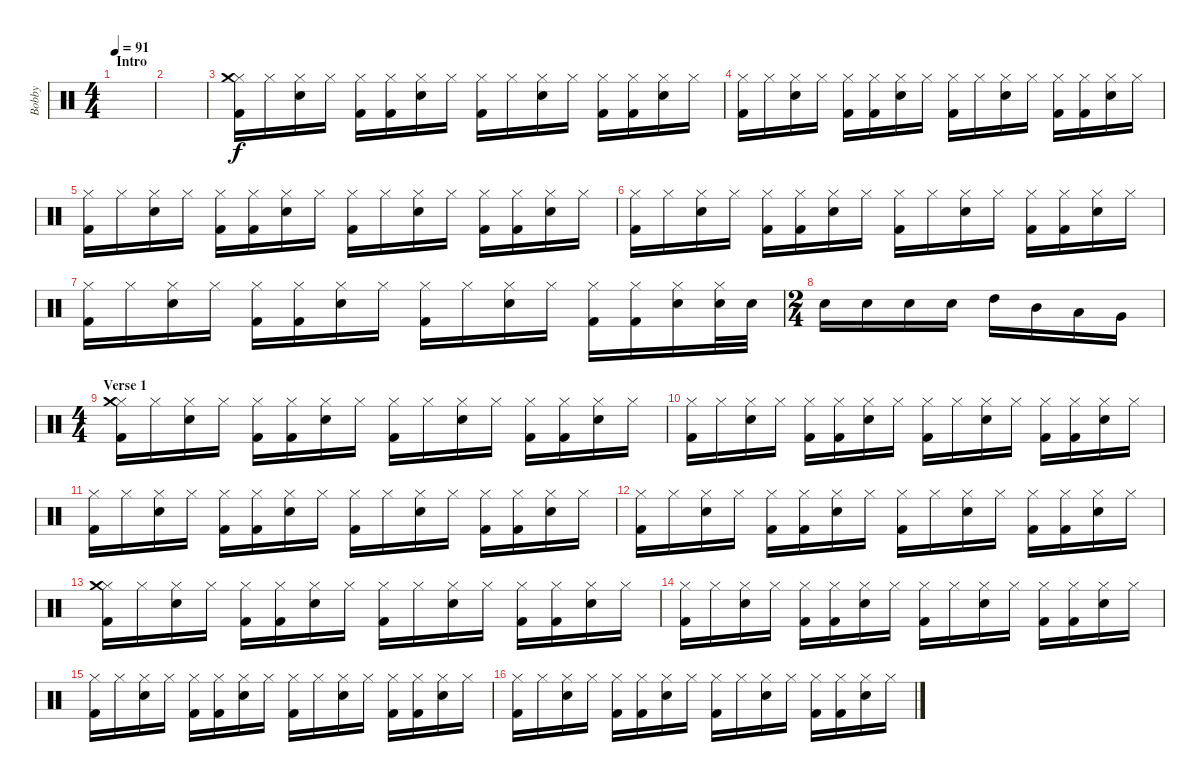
\track ("Bobby" "Bobby") {instrument percussion}
\staff {score}
\articulation defaults
\ts (4 4)
\section ("" "Intro")
\tempo 91
\clef neutral
\ks c
|
|
("Hi-Hat (closed)" "Crash medium (hit)" "Kick (hit) 2").16 "Hi-Hat (closed)".16 ("Hi-Hat (closed)" "Snare (hit) 2").16 "Hi-Hat (closed)".16 ("Hi-Hat (closed)" "Kick (hit) 2").16 ("Hi-Hat (closed)" "Kick (hit) 2").16 ("Hi-Hat (closed)" "Snare (hit) 2").16 "Hi-Hat (closed)".16 ("Hi-Hat (closed)" "Kick (hit) 2").16 "Hi-Hat (closed)".16 ("Hi-Hat (closed)" "Snare (hit) 2").16 "Hi-Hat (closed)".16 ("Hi-Hat (closed)" "Kick (hit) 2").16 ("Hi-Hat (closed)" "Kick (hit) 2").16 ("Hi-Hat (closed)" "Snare (hit) 2").16 "Hi-Hat (closed)".16 |
("Hi-Hat (closed)" "Kick (hit) 2").16 "Hi-Hat (closed)".16 ("Hi-Hat (closed)" "Snare (hit) 2").16 "Hi-Hat (closed)".16 ("Hi-Hat (closed)" "Kick (hit) 2").16 ("Hi-Hat (closed)" "Kick (hit) 2").16 ("Hi-Hat (closed)" "Snare (hit) 2").16 "Hi-Hat (closed)".16 ("Hi-Hat (closed)" "Kick (hit) 2").16 "Hi-Hat (closed)".16 ("Hi-Hat (closed)" "Snare (hit) 2").16 "Hi-Hat (closed)".16 ("Hi-Hat (closed)" "Kick (hit) 2").16 ("Hi-Hat (closed)" "Kick (hit) 2").16 ("Hi-Hat (closed)" "Snare (hit) 2").16 "Hi-Hat (closed)".16 |
("Hi-Hat (closed)" "Kick (hit) 2").16 "Hi-Hat (closed)".16 ("Hi-Hat (closed)" "Snare (hit) 2").16 "Hi-Hat (closed)".16 ("Hi-Hat (closed)" "Kick (hit) 2").16 ("Hi-Hat (closed)" "Kick (hit) 2").16 ("Hi-Hat (closed)" "Snare (hit) 2").16 "Hi-Hat (closed)".16 ("Hi-Hat (closed)" "Kick (hit) 2").16 "Hi-Hat (closed)".16 ("Hi-Hat (closed)" "Snare (hit) 2").16 "Hi-Hat (closed)".16 ("Hi-Hat (closed)" "Kick (hit) 2").16 ("Hi-Hat (closed)" "Kick (hit) 2").16 ("Hi-Hat (closed)" "Snare (hit) 2").16 "Hi-Hat (closed)".16 |
("Hi-Hat (closed)" "Kick (hit) 2").16 "Hi-Hat (closed)".16 ("Hi-Hat (closed)" "Snare (hit) 2").16 "Hi-Hat (closed)".16 ("Hi-Hat (closed)" "Kick (hit) 2").16 ("Hi-Hat (closed)" "Kick (hit) 2").16 ("Hi-Hat (closed)" "Snare (hit) 2").16 "Hi-Hat (closed)".16 ("Hi-Hat (closed)" "Kick (hit) 2").16 "Hi-Hat (closed)".16 ("Hi-Hat (closed)" "Snare (hit) 2").16 "Hi-Hat (closed)".16 ("Hi-Hat (closed)" "Kick (hit) 2").16 ("Hi-Hat (closed)" "Kick (hit) 2").16 ("Hi-Hat (closed)" "Snare (hit) 2").16 "Hi-Hat (closed)".16 |
("Hi-Hat (closed)" "Kick (hit) 2").16 "Hi-Hat (closed)".16 ("Hi-Hat (closed)" "Snare (hit) 2").16 "Hi-Hat (closed)".16 ("Hi-Hat (closed)" "Kick (hit) 2").16 ("Hi-Hat (closed)" "Kick (hit) 2").16 ("Hi-Hat (closed)" "Snare (hit) 2").16 "Hi-Hat (closed)".16 ("Hi-Hat (closed)" "Kick (hit) 2").16 "Hi-Hat (closed)".16 ("Hi-Hat (closed)" "Snare (hit) 2").16 "Hi-Hat (closed)".16 ("Hi-Hat (closed)" "Kick (hit) 2").16 ("Hi-Hat (closed)" "Kick (hit) 2").16 ("Hi-Hat (closed)" "Snare (hit) 2").16 ("Hi-Hat (closed)" "Snare (hit) 2").32 "Snare (hit) 2".32 |
\ts (2 4)
"Snare (hit) 2".16 "Snare (hit) 2".16 "Snare (hit) 2".16 "Snare (hit) 2".16 "High Tom (hit)".16 "Mid Tom (hit)".16 "Low Tom (hit)".16 "Very Low Tom (hit)".16 |
\ts (4 4)
\section ("" "Verse 1")
("Hi-Hat (closed)" "Crash medium (hit)" "Kick (hit) 2").16 "Hi-Hat (closed)".16 ("Hi-Hat (closed)" "Snare (hit) 2").16 "Hi-Hat (closed)".16 ("Hi-Hat (closed)" "Kick (hit) 2").16 ("Hi-Hat (closed)" "Kick (hit) 2").16 ("Hi-Hat (closed)" "Snare (hit) 2").16 "Hi-Hat (closed)".16 ("Hi-Hat (closed)" "Kick (hit) 2").16 "Hi-Hat (closed)".16 ("Hi-Hat (closed)" "Snare (hit) 2").16 "Hi-Hat (closed)".16 ("Hi-Hat (closed)" "Kick (hit) 2").16 ("Hi-Hat (closed)" "Kick (hit) 2").16 ("Hi-Hat (closed)" "Snare (hit) 2").16 "Hi-Hat (closed)".16 |
("Hi-Hat (closed)" "Kick (hit) 2").16 "Hi-Hat (closed)".16 ("Hi-Hat (closed)" "Snare (hit) 2").16 "Hi-Hat (closed)".16 ("Hi-Hat (closed)" "Kick (hit) 2").16 ("Hi-Hat (closed)" "Kick (hit) 2").16 ("Hi-Hat (closed)" "Snare (hit) 2").16 "Hi-Hat (closed)".16 ("Hi-Hat (closed)" "Kick (hit) 2").16 "Hi-Hat (closed)".16 ("Hi-Hat (closed)" "Snare (hit) 2").16 "Hi-Hat (closed)".16 ("Hi-Hat (closed)" "Kick (hit) 2").16 ("Hi-Hat (closed)" "Kick (hit) 2").16 ("Hi-Hat (closed)" "Snare (hit) 2").16 "Hi-Hat (closed)".16 |
("Hi-Hat (closed)" "Kick (hit) 2").16 "Hi-Hat (closed)".16 ("Hi-Hat (closed)" "Snare (hit) 2").16 "Hi-Hat (closed)".16 ("Hi-Hat (closed)" "Kick (hit) 2").16 ("Hi-Hat (closed)" "Kick (hit) 2").16 ("Hi-Hat (closed)" "Snare (hit) 2").16 "Hi-Hat (closed)".16 ("Hi-Hat (closed)" "Kick (hit) 2").16 "Hi-Hat (closed)".16 ("Hi-Hat (closed)" "Snare (hit) 2").16 "Hi-Hat (closed)".16 ("Hi-Hat (closed)" "Kick (hit) 2").16 ("Hi-Hat (closed)" "Kick (hit) 2").16 ("Hi-Hat (closed)" "Snare (hit) 2").16 "Hi-Hat (closed)".16 |
("Hi-Hat (closed)" "Kick (hit) 2").16 "Hi-Hat (closed)".16 ("Hi-Hat (closed)" "Snare (hit) 2").16 "Hi-Hat (closed)".16 ("Hi-Hat (closed)" "Kick (hit) 2").16 ("Hi-Hat (closed)" "Kick (hit) 2").16 ("Hi-Hat (closed)" "Snare (hit) 2").16 "Hi-Hat (closed)".16 ("Hi-Hat (closed)" "Kick (hit) 2").16 "Hi-Hat (closed)".16 ("Hi-Hat (closed)" "Snare (hit) 2").16 "Hi-Hat (closed)".16 ("Hi-Hat (closed)" "Kick (hit) 2").16 ("Hi-Hat (closed)" "Kick (hit) 2").16 ("Hi-Hat (closed)" "Snare (hit) 2").16 "Hi-Hat (closed)".16 |
("Hi-Hat (closed)" "Crash medium (hit)" "Kick (hit) 2").16 "Hi-Hat (closed)".16 ("Hi-Hat (closed)" "Snare (hit) 2").16 "Hi-Hat (closed)".16 ("Hi-Hat (closed)" "Kick (hit) 2").16 ("Hi-Hat (closed)" "Kick (hit) 2").16 ("Hi-Hat (closed)" "Snare (hit) 2").16 "Hi-Hat (closed)".16 ("Hi-Hat (closed)" "Kick (hit) 2").16 "Hi-Hat (closed)".16 ("Hi-Hat (closed)" "Snare (hit) 2").16 "Hi-Hat (closed)".16 ("Hi-Hat (closed)" "Kick (hit) 2").16 ("Hi-Hat (closed)" "Kick (hit) 2").16 ("Hi-Hat (closed)" "Snare (hit) 2").16 "Hi-Hat (closed)".16 |
("Hi-Hat (closed)" "Kick (hit) 2").16 "Hi-Hat (closed)".16 ("Hi-Hat (closed)" "Snare (hit) 2").16 "Hi-Hat (closed)".16 ("Hi-Hat (closed)" "Kick (hit) 2").16 ("Hi-Hat (closed)" "Kick (hit) 2").16 ("Hi-Hat (closed)" "Snare (hit) 2").16 "Hi-Hat (closed)".16 ("Hi-Hat (closed)" "Kick (hit) 2").16 "Hi-Hat (closed)".16 ("Hi-Hat (closed)" "Snare (hit) 2").16 "Hi-Hat (closed)".16 ("Hi-Hat (closed)" "Kick (hit) 2").16 ("Hi-Hat (closed)" "Kick (hit) 2").16 ("Hi-Hat (closed)" "Snare (hit) 2").16 "Hi-Hat (closed)".16 |
("Hi-Hat (closed)" "Kick (hit) 2").16 "Hi-Hat (closed)".16 ("Hi-Hat (closed)" "Snare (hit) 2").16 "Hi-Hat (closed)".16 ("Hi-Hat (closed)" "Kick (hit) 2").16 ("Hi-Hat (closed)" "Kick (hit) 2").16 ("Hi-Hat (closed)" "Snare (hit) 2").16 "Hi-Hat (closed)".16 ("Hi-Hat (closed)" "Kick (hit) 2").16 "Hi-Hat (closed)".16 ("Hi-Hat (closed)" "Snare (hit) 2").16 "Hi-Hat (closed)".16 ("Hi-Hat (closed)" "Kick (hit) 2").16 ("Hi-Hat (closed)" "Kick (hit) 2").16 ("Hi-Hat (closed)" "Snare (hit) 2").16 "Hi-Hat (closed)".16 |
("Hi-Hat (closed)" "Kick (hit) 2").16 "Hi-Hat (closed)".16 ("Hi-Hat (closed)" "Snare (hit) 2").16 "Hi-Hat (closed)".16 ("Hi-Hat (closed)" "Kick (hit) 2").16 ("Hi-Hat (closed)" "Kick (hit) 2").16 ("Hi-Hat (closed)" "Snare (hit) 2").16 "Hi-Hat (closed)".16 ("Hi-Hat (closed)" "Kick (hit) 2").16 "Hi-Hat (closed)".16 ("Hi-Hat (closed)" "Snare (hit) 2").16 "Hi-Hat (closed)".16 ("Hi-Hat (closed)" "Kick (hit) 2").16 ("Hi-Hat (closed)" "Kick (hit) 2").16 ("Hi-Hat (closed)" "Snare (hit) 2").16 "Hi-Hat (closed)".16
